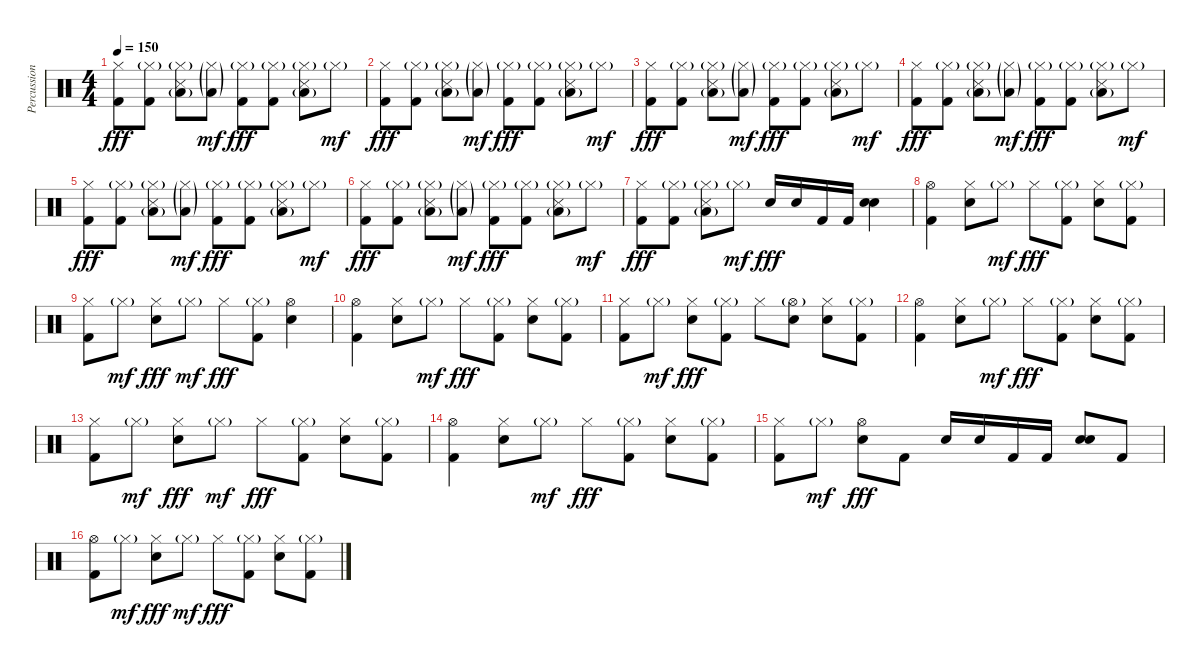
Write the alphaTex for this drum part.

\track ("Percussion" "Percussion") {instrument percussion}
\staff {score}
\articulation defaults
\ts (4 4)
\tempo 150
\clef neutral
\ks c
("Hi-Hat (closed)" "Kick (hit) 2").8{dy fff} ("Hi-Hat (closed)"{g} "Kick (hit) 2").8 ("Hi-Hat (closed)"{g} "Snare (side stick) 3" "Low Tom (hit)"{g}).8 ("Hi-Hat (closed)"{g} "Low Tom (hit)"{g}).8{dy mf} ("Hi-Hat (closed)"{g} "Kick (hit) 2").8{dy fff} ("Hi-Hat (closed)"{g} "Kick (hit) 2").8 ("Hi-Hat (closed)"{g} "Snare (side stick) 3" "Low Floor Tom (hit)"{g}).8 "Hi-Hat (closed)"{g}.8{dy mf} |
("Hi-Hat (closed)" "Kick (hit) 2").8{dy fff} ("Hi-Hat (closed)"{g} "Kick (hit) 2").8 ("Hi-Hat (closed)"{g} "Snare (side stick) 3" "Low Tom (hit)"{g}).8 ("Hi-Hat (closed)"{g} "Low Tom (hit)"{g}).8{dy mf} ("Hi-Hat (closed)"{g} "Kick (hit) 2").8{dy fff} ("Hi-Hat (closed)"{g} "Kick (hit) 2").8 ("Hi-Hat (closed)"{g} "Snare (side stick) 3" "Low Floor Tom (hit)"{g}).8 "Hi-Hat (closed)"{g}.8{dy mf} |
("Hi-Hat (closed)" "Kick (hit) 2").8{dy fff} ("Hi-Hat (closed)"{g} "Kick (hit) 2").8 ("Hi-Hat (closed)"{g} "Snare (side stick) 3" "Low Tom (hit)"{g}).8 ("Hi-Hat (closed)"{g} "Low Tom (hit)"{g}).8{dy mf} ("Hi-Hat (closed)"{g} "Kick (hit) 2").8{dy fff} ("Hi-Hat (closed)"{g} "Kick (hit) 2").8 ("Hi-Hat (closed)"{g} "Snare (side stick) 3" "Low Floor Tom (hit)"{g}).8 "Hi-Hat (closed)"{g}.8{dy mf} |
("Hi-Hat (closed)" "Kick (hit) 2").8{dy fff} ("Hi-Hat (closed)"{g} "Kick (hit) 2").8 ("Hi-Hat (closed)"{g} "Snare (side stick) 3" "Low Tom (hit)"{g}).8 ("Hi-Hat (closed)"{g} "Low Tom (hit)"{g}).8{dy mf} ("Hi-Hat (closed)"{g} "Kick (hit) 2").8{dy fff} ("Hi-Hat (closed)"{g} "Kick (hit) 2").8 ("Hi-Hat (closed)"{g} "Snare (side stick) 3" "Low Floor Tom (hit)"{g}).8 "Hi-Hat (closed)"{g}.8{dy mf} |
("Hi-Hat (closed)" "Kick (hit) 2").8{dy fff} ("Hi-Hat (closed)"{g} "Kick (hit) 2").8 ("Hi-Hat (closed)"{g} "Snare (side stick) 3" "Low Tom (hit)"{g}).8 ("Hi-Hat (closed)"{g} "Low Tom (hit)"{g}).8{dy mf} ("Hi-Hat (closed)"{g} "Kick (hit) 2").8{dy fff} ("Hi-Hat (closed)"{g} "Kick (hit) 2").8 ("Hi-Hat (closed)"{g} "Snare (side stick) 3" "Low Floor Tom (hit)"{g}).8 "Hi-Hat (closed)"{g}.8{dy mf} |
("Hi-Hat (closed)" "Kick (hit) 2").8{dy fff} ("Hi-Hat (closed)"{g} "Kick (hit) 2").8 ("Hi-Hat (closed)"{g} "Snare (side stick) 3" "Low Tom (hit)"{g}).8 ("Hi-Hat (closed)"{g} "Low Tom (hit)"{g}).8{dy mf} ("Hi-Hat (closed)"{g} "Kick (hit) 2").8{dy fff} ("Hi-Hat (closed)"{g} "Kick (hit) 2").8 ("Hi-Hat (closed)"{g} "Snare (side stick) 3" "Low Floor Tom (hit)"{g}).8 "Hi-Hat (closed)"{g}.8{dy mf} |
("Hi-Hat (closed)" "Kick (hit) 2").8{dy fff} ("Hi-Hat (closed)"{g} "Kick (hit) 2").8 ("Hi-Hat (closed)"{g} "Snare (side stick) 3" "Low Tom (hit)"{g}).8 "Hi-Hat (closed)"{g}.8{dy mf} "Electric Snare (hit)".16{dy fff} "Electric Snare (hit)".16 "Kick (hit) 2".16 "Kick (hit) 2".16 ("Electric Snare (hit)" "Electric Snare (hit)").4{bd 480} |
("Hi-Hat (open)" "Kick (hit) 2").4 ("Hi-Hat (closed)" "Electric Snare (hit)").8 "Hi-Hat (closed)"{g}.8{dy mf} "Hi-Hat (closed)".8{dy fff} ("Hi-Hat (closed)"{g} "Kick (hit) 2").8 ("Hi-Hat (closed)" "Electric Snare (hit)").8 ("Hi-Hat (closed)"{g} "Kick (hit) 2").8 |
("Hi-Hat (closed)" "Kick (hit) 2").8 "Hi-Hat (closed)"{g}.8{dy mf} ("Hi-Hat (closed)" "Electric Snare (hit)").8{dy fff} "Hi-Hat (closed)"{g}.8{dy mf} "Hi-Hat (closed)".8{dy fff} ("Hi-Hat (closed)"{g} "Kick (hit) 2").8 ("Hi-Hat (open)" "Electric Snare (hit)").4 |
("Hi-Hat (open)" "Kick (hit) 2").4 ("Hi-Hat (closed)" "Electric Snare (hit)").8 "Hi-Hat (closed)"{g}.8{dy mf} "Hi-Hat (closed)".8{dy fff} ("Hi-Hat (closed)"{g} "Kick (hit) 2").8 ("Hi-Hat (closed)" "Electric Snare (hit)").8 ("Hi-Hat (closed)"{g} "Kick (hit) 2").8 |
("Hi-Hat (closed)" "Kick (hit) 2").8 "Hi-Hat (closed)"{g}.8{dy mf} ("Hi-Hat (closed)" "Electric Snare (hit)").8{dy fff} ("Hi-Hat (closed)"{g} "Kick (hit) 2").8 "Hi-Hat (closed)".8 ("Hi-Hat (open)"{g} "Electric Snare (hit)").8 ("Hi-Hat (closed)" "Electric Snare (hit)").8 ("Hi-Hat (closed)"{g} "Kick (hit) 2").8 |
("Hi-Hat (open)" "Kick (hit) 2").4 ("Hi-Hat (closed)" "Electric Snare (hit)").8 "Hi-Hat (closed)"{g}.8{dy mf} "Hi-Hat (closed)".8{dy fff} ("Hi-Hat (closed)"{g} "Kick (hit) 2").8 ("Hi-Hat (closed)" "Electric Snare (hit)").8 ("Hi-Hat (closed)"{g} "Kick (hit) 2").8 |
("Hi-Hat (closed)" "Kick (hit) 2").8 "Hi-Hat (closed)"{g}.8{dy mf} ("Hi-Hat (closed)" "Electric Snare (hit)").8{dy fff} "Hi-Hat (closed)"{g}.8{dy mf} "Hi-Hat (closed)".8{dy fff} ("Hi-Hat (closed)"{g} "Kick (hit) 2").8 ("Hi-Hat (closed)" "Electric Snare (hit)").8 ("Hi-Hat (closed)"{g} "Kick (hit) 2").8 |
("Hi-Hat (open)" "Kick (hit) 2").4 ("Hi-Hat (closed)" "Electric Snare (hit)").8 "Hi-Hat (closed)"{g}.8{dy mf} "Hi-Hat (closed)".8{dy fff} ("Hi-Hat (closed)"{g} "Kick (hit) 2").8 ("Hi-Hat (closed)" "Electric Snare (hit)").8 ("Hi-Hat (closed)"{g} "Kick (hit) 2").8 |
("Hi-Hat (closed)" "Kick (hit) 2").8 "Hi-Hat (closed)"{g}.8{dy mf} ("Hi-Hat (open)" "Electric Snare (hit)").8{dy fff} "Kick (hit) 2".8 "Electric Snare (hit)".16 "Electric Snare (hit)".16 "Kick (hit) 2".16 "Kick (hit) 2".16 ("Electric Snare (hit)" "Electric Snare (hit)").8{bd 480} "Kick (hit) 2".8 |
("Hi-Hat (open)" "Kick (hit) 2").8 "Hi-Hat (closed)"{g}.8{dy mf} ("Hi-Hat (closed)" "Electric Snare (hit)").8{dy fff} "Hi-Hat (closed)"{g}.8{dy mf} "Hi-Hat (closed)".8{dy fff} ("Hi-Hat (closed)"{g} "Kick (hit) 2").8 ("Hi-Hat (closed)" "Electric Snare (hit)").8 ("Hi-Hat (closed)"{g} "Kick (hit) 2").8
